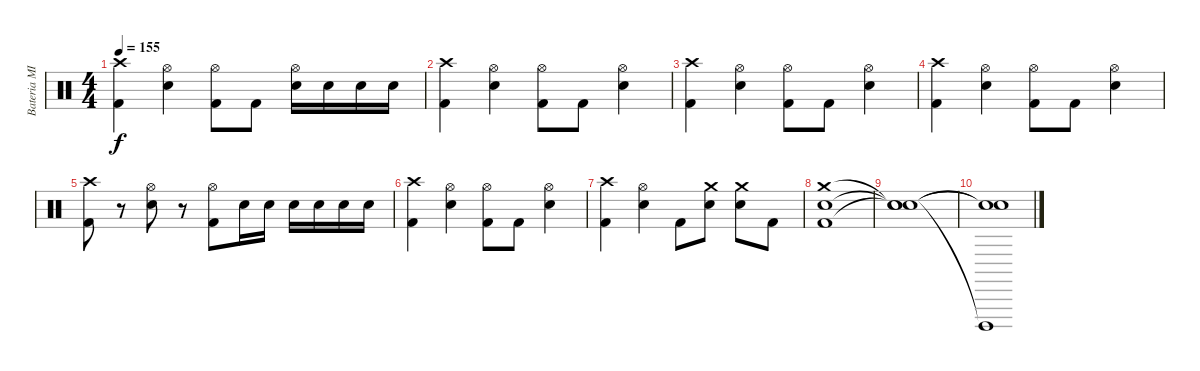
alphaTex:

\track ("Bateria MIDI" "Bateria MI") {instrument percussion bank 1}
\staff {score}
\articulation defaults
\ts (4 4)
\tempo 155
\clef neutral
\ks c
("Crash high (hit)" "Kick (hit) 2").4{dy f} ("Hi-Hat (open)" "Snare (hit) 2").4 ("Hi-Hat (open)" "Kick (hit) 2").8 "Kick (hit) 2".8 ("Hi-Hat (open)" "Snare (hit) 2").16 "Snare (hit) 2".16 "Snare (hit) 2".16 "Snare (hit) 2".16 |
("Crash high (hit)" "Kick (hit) 2").4 ("Hi-Hat (open)" "Snare (hit) 2").4 ("Hi-Hat (open)" "Kick (hit) 2").8 "Kick (hit) 2".8 ("Hi-Hat (open)" "Snare (hit) 2").4 |
("Crash high (hit)" "Kick (hit) 2").4 ("Hi-Hat (open)" "Snare (hit) 2").4 ("Hi-Hat (open)" "Kick (hit) 2").8 "Kick (hit) 2".8 ("Hi-Hat (open)" "Snare (hit) 2").4 |
("Crash high (hit)" "Kick (hit) 2").4 ("Hi-Hat (open)" "Snare (hit) 2").4 ("Hi-Hat (open)" "Kick (hit) 2").8 "Kick (hit) 2".8 ("Hi-Hat (open)" "Snare (hit) 2").4 |
("Crash high (hit)" "Kick (hit) 2").8 r.8 ("Hi-Hat (open)" "Snare (hit) 2").8 r.8 ("Hi-Hat (open)" "Kick (hit) 2").8 "Snare (hit) 2".16 "Snare (hit) 2".16 "Snare (hit) 2".16 "Snare (hit) 2".16 "Snare (hit) 2".16 "Snare (hit) 2".16 |
("Crash high (hit)" "Kick (hit) 2").4 ("Hi-Hat (open)" "Snare (hit) 2").4 ("Hi-Hat (open)" "Kick (hit) 2").8 "Kick (hit) 2".8 ("Hi-Hat (open)" "Snare (hit) 2").4 |
("Crash high (hit)" "Kick (hit) 2").4 ("Hi-Hat (open)" "Snare (hit) 2").4 "Kick (hit) 2".8 ("Crash medium (hit)" "Snare (hit) 2").8 ("Crash medium (hit)" "Snare (hit) 2").8 "Kick (hit) 2".8 |
("Crash medium (hit)" "Kick (hit) 2" "Snare (hit) 2").1 |
("Snare (hit)"{t} "Snare (hit)"{t} "Snare (hit)"{t}).1 |
("Snare (hit)"{t} "Cuica (open)"{t} "Snare (hit)"{t}).1
